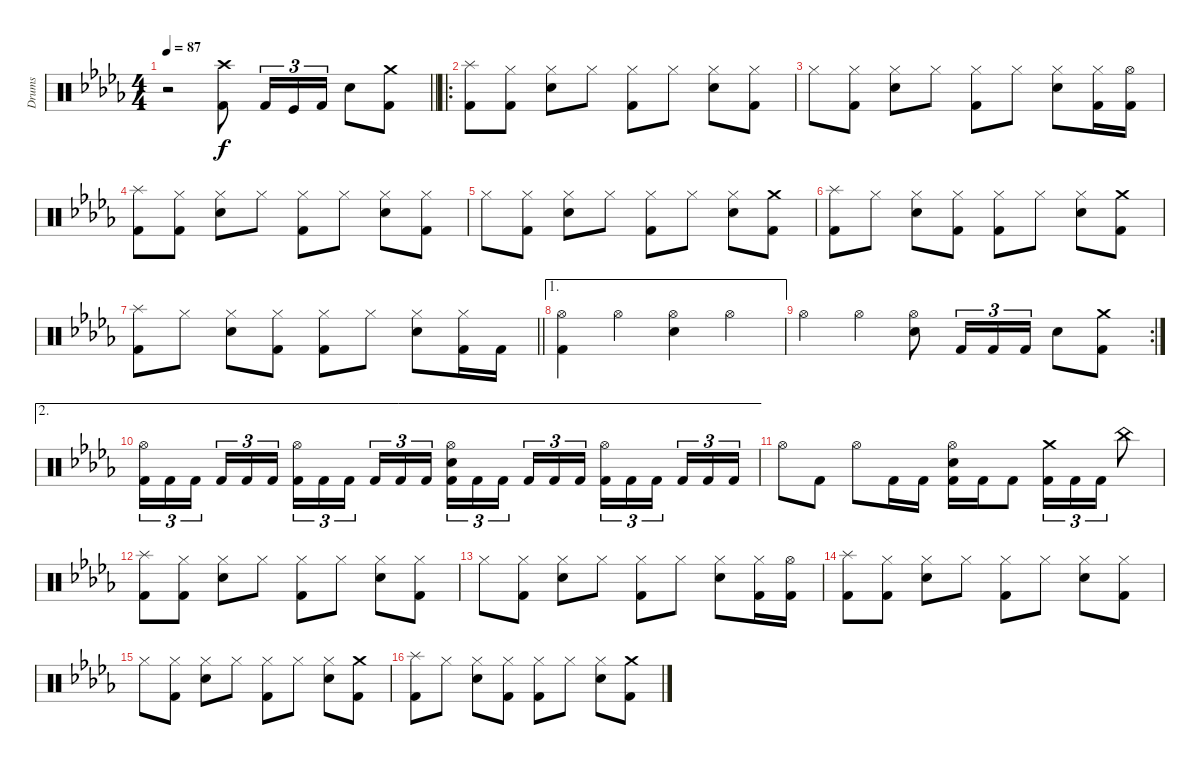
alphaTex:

\track ("Drums" "Drums") {instrument percussion}
\staff {score}
\articulation defaults
\ts (4 4)
\tempo 87
\clef neutral
\barLineRight lightlight
\ks db
r.2{dy f} ("Crash high (hit)" "Kick (hit) 2").8 "Kick (hit) 2".16{tu (3 2)} "Kick (hit)".16{tu (3 2)} "Kick (hit) 2".16{tu (3 2)} "Electric Snare (hit)".8 ("Crash medium (hit)" "Kick (hit) 2").8 |
\ro
("Splash (hit)" "Kick (hit) 2").8 ("Hi-Hat (closed)" "Kick (hit) 2").8 ("Hi-Hat (closed)" "Electric Snare (hit)").8 "Hi-Hat (closed)".8 ("Hi-Hat (closed)" "Kick (hit) 2").8 "Hi-Hat (closed)".8 ("Hi-Hat (closed)" "Electric Snare (hit)").8 ("Hi-Hat (closed)" "Kick (hit) 2").8 |
"Hi-Hat (closed)".8 ("Hi-Hat (closed)" "Kick (hit) 2").8 ("Hi-Hat (closed)" "Electric Snare (hit)").8 "Hi-Hat (closed)".8 ("Hi-Hat (closed)" "Kick (hit) 2").8 "Hi-Hat (closed)".8 ("Hi-Hat (closed)" "Electric Snare (hit)").8 ("Hi-Hat (closed)" "Kick (hit) 2").16 ("Hi-Hat (open)" "Kick (hit) 2").16 |
("Splash (hit)" "Kick (hit) 2").8 ("Hi-Hat (closed)" "Kick (hit) 2").8 ("Hi-Hat (closed)" "Electric Snare (hit)").8 "Hi-Hat (closed)".8 ("Hi-Hat (closed)" "Kick (hit) 2").8 "Hi-Hat (closed)".8 ("Hi-Hat (closed)" "Electric Snare (hit)").8 ("Hi-Hat (closed)" "Kick (hit) 2").8 |
"Hi-Hat (closed)".8 ("Hi-Hat (closed)" "Kick (hit) 2").8 ("Hi-Hat (closed)" "Electric Snare (hit)").8 "Hi-Hat (closed)".8 ("Hi-Hat (closed)" "Kick (hit) 2").8 "Hi-Hat (closed)".8 ("Hi-Hat (closed)" "Electric Snare (hit)").8 ("Crash medium (hit)" "Kick (hit) 2").8 |
("Splash (hit)" "Kick (hit) 2").8 "Hi-Hat (closed)".8 ("Hi-Hat (closed)" "Electric Snare (hit)").8 ("Hi-Hat (closed)" "Kick (hit) 2").8 ("Hi-Hat (closed)" "Kick (hit) 2").8 "Hi-Hat (closed)".8 ("Hi-Hat (closed)" "Electric Snare (hit)").8 ("Crash medium (hit)" "Kick (hit) 2").8 |
\barLineRight lightlight
("Splash (hit)" "Kick (hit) 2").8 "Hi-Hat (closed)".8 ("Hi-Hat (closed)" "Electric Snare (hit)").8 ("Hi-Hat (closed)" "Kick (hit) 2").8 ("Hi-Hat (closed)" "Kick (hit) 2").8 "Hi-Hat (closed)".8 ("Hi-Hat (closed)" "Electric Snare (hit)").8 ("Hi-Hat (closed)" "Kick (hit) 2").16 "Kick (hit) 2".16 |
\ae 1
("Hi-Hat (open)" "Kick (hit) 2").4 "Hi-Hat (open)".4 ("Hi-Hat (open)" "Electric Snare (hit)").4 "Hi-Hat (open)".4 |
\rc 2 "Hi-Hat (open)".4 "Hi-Hat (open)".4
("Hi-Hat (open)" "Electric Snare (hit)").8 "Kick (hit) 2".16{tu (3 2)} "Kick (hit) 2".16{tu (3 2)} "Kick (hit) 2".16{tu (3 2)} "Electric Snare (hit)".8 ("Crash medium (hit)" "Kick (hit) 2").8 |
\ae 2
("Hi-Hat (open)" "Kick (hit) 2").16{tu (3 2)} "Kick (hit) 2".16{tu (3 2)} "Kick (hit) 2".16{tu (3 2)} "Kick (hit) 2".16{tu (3 2)} "Kick (hit) 2".16{tu (3 2)} "Kick (hit) 2".16{tu (3 2)} ("Hi-Hat (open)" "Kick (hit) 2").16{tu (3 2)} "Kick (hit) 2".16{tu (3 2)} "Kick (hit) 2".16{tu (3 2)} "Kick (hit) 2".16{tu (3 2)} "Kick (hit) 2".16{tu (3 2)} "Kick (hit) 2".16{tu (3 2)} ("Hi-Hat (open)" "Electric Snare (hit)" "Kick (hit) 2").16{tu (3 2)} "Kick (hit) 2".16{tu (3 2)} "Kick (hit) 2".16{tu (3 2)} "Kick (hit) 2".16{tu (3 2)} "Kick (hit) 2".16{tu (3 2)} "Kick (hit) 2".16{tu (3 2)} ("Hi-Hat (open)" "Kick (hit) 2").16{tu (3 2)} "Kick (hit) 2".16{tu (3 2)} "Kick (hit) 2".16{tu (3 2)} "Kick (hit) 2".16{tu (3 2)} "Kick (hit) 2".16{tu (3 2)} "Kick (hit) 2".16{tu (3 2)} |
"Hi-Hat (open)".8 "Kick (hit) 2".8 "Hi-Hat (open)".8 "Kick (hit) 2".16 "Kick (hit) 2".16 ("Hi-Hat (open)" "Electric Snare (hit)" "Kick (hit) 2").16 "Kick (hit) 2".16 "Kick (hit) 2".8 ("Crash medium (hit)" "Kick (hit) 2").16{tu (3 2)} "Kick (hit) 2".16{tu (3 2)} "Kick (hit) 2".16{tu (3 2)} "China (hit)".8 |
("Splash (hit)" "Kick (hit) 2").8 ("Hi-Hat (closed)" "Kick (hit) 2").8 ("Hi-Hat (closed)" "Electric Snare (hit)").8 "Hi-Hat (closed)".8 ("Hi-Hat (closed)" "Kick (hit) 2").8 "Hi-Hat (closed)".8 ("Hi-Hat (closed)" "Electric Snare (hit)").8 ("Hi-Hat (closed)" "Kick (hit) 2").8 |
"Hi-Hat (closed)".8 ("Hi-Hat (closed)" "Kick (hit) 2").8 ("Hi-Hat (closed)" "Electric Snare (hit)").8 "Hi-Hat (closed)".8 ("Hi-Hat (closed)" "Kick (hit) 2").8 "Hi-Hat (closed)".8 ("Hi-Hat (closed)" "Electric Snare (hit)").8 ("Hi-Hat (closed)" "Kick (hit) 2").16 ("Hi-Hat (open)" "Kick (hit) 2").16 |
("Splash (hit)" "Kick (hit) 2").8 ("Hi-Hat (closed)" "Kick (hit) 2").8 ("Hi-Hat (closed)" "Electric Snare (hit)").8 "Hi-Hat (closed)".8 ("Hi-Hat (closed)" "Kick (hit) 2").8 "Hi-Hat (closed)".8 ("Hi-Hat (closed)" "Electric Snare (hit)").8 ("Hi-Hat (closed)" "Kick (hit) 2").8 |
"Hi-Hat (closed)".8 ("Hi-Hat (closed)" "Kick (hit) 2").8 ("Hi-Hat (closed)" "Electric Snare (hit)").8 "Hi-Hat (closed)".8 ("Hi-Hat (closed)" "Kick (hit) 2").8 "Hi-Hat (closed)".8 ("Hi-Hat (closed)" "Electric Snare (hit)").8 ("Crash medium (hit)" "Kick (hit) 2").8 |
("Splash (hit)" "Kick (hit) 2").8 "Hi-Hat (closed)".8 ("Hi-Hat (closed)" "Electric Snare (hit)").8 ("Hi-Hat (closed)" "Kick (hit) 2").8 ("Hi-Hat (closed)" "Kick (hit) 2").8 "Hi-Hat (closed)".8 ("Hi-Hat (closed)" "Electric Snare (hit)").8 ("Crash medium (hit)" "Kick (hit) 2").8
